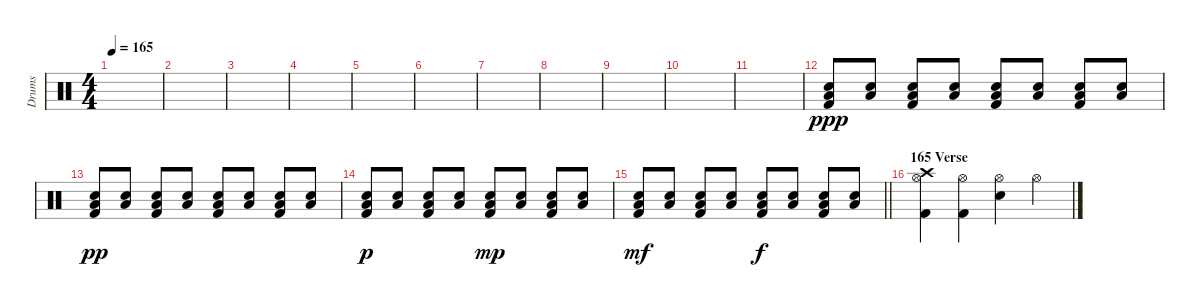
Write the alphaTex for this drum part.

\track ("Drums" "Drums") {instrument percussion}
\staff {score}
\articulation defaults
\ts (4 4)
\tempo 165
\clef neutral
\ks c
|
|
|
|
|
|
|
|
|
|
|
("Low Floor Tom (hit)" "Snare (hit) 2" "Kick (hit) 2").8{dy ppp} ("Low Floor Tom (hit)" "Snare (hit) 2").8 ("Low Floor Tom (hit)" "Snare (hit) 2" "Kick (hit) 2").8 ("Low Floor Tom (hit)" "Snare (hit) 2").8 ("Low Floor Tom (hit)" "Snare (hit) 2" "Kick (hit) 2").8 ("Low Floor Tom (hit)" "Snare (hit) 2").8 ("Low Floor Tom (hit)" "Snare (hit) 2" "Kick (hit) 2").8 ("Low Floor Tom (hit)" "Snare (hit) 2").8 |
("Low Floor Tom (hit)" "Snare (hit) 2" "Kick (hit) 2").8{dy pp} ("Low Floor Tom (hit)" "Snare (hit) 2").8 ("Low Floor Tom (hit)" "Snare (hit) 2" "Kick (hit) 2").8 ("Low Floor Tom (hit)" "Snare (hit) 2").8 ("Low Floor Tom (hit)" "Snare (hit) 2" "Kick (hit) 2").8 ("Low Floor Tom (hit)" "Snare (hit) 2").8 ("Low Floor Tom (hit)" "Snare (hit) 2" "Kick (hit) 2").8 ("Low Floor Tom (hit)" "Snare (hit) 2").8 |
("Low Floor Tom (hit)" "Snare (hit) 2" "Kick (hit) 2").8{dy p} ("Low Floor Tom (hit)" "Snare (hit) 2").8 ("Low Floor Tom (hit)" "Snare (hit) 2" "Kick (hit) 2").8 ("Low Floor Tom (hit)" "Snare (hit) 2").8 ("Low Floor Tom (hit)" "Snare (hit) 2" "Kick (hit) 2").8{dy mp} ("Low Floor Tom (hit)" "Snare (hit) 2").8 ("Low Floor Tom (hit)" "Snare (hit) 2" "Kick (hit) 2").8 ("Low Floor Tom (hit)" "Snare (hit) 2").8 |
\barLineRight lightlight
("Low Floor Tom (hit)" "Snare (hit) 2" "Kick (hit) 2").8{dy mf} ("Low Floor Tom (hit)" "Snare (hit) 2").8 ("Low Floor Tom (hit)" "Snare (hit) 2" "Kick (hit) 2").8 ("Low Floor Tom (hit)" "Snare (hit) 2").8 ("Low Floor Tom (hit)" "Snare (hit) 2" "Kick (hit) 2").8{dy f} ("Low Floor Tom (hit)" "Snare (hit) 2").8 ("Low Floor Tom (hit)" "Snare (hit) 2" "Kick (hit) 2").8 ("Low Floor Tom (hit)" "Snare (hit) 2").8 |
\section ("" "165 Verse")
("Crash high (hit)" "Hi-Hat (open)" "Kick (hit) 2").4 ("Hi-Hat (open)" "Kick (hit) 2").4 ("Hi-Hat (open)" "Snare (hit) 2").4 "Hi-Hat (open)".4
